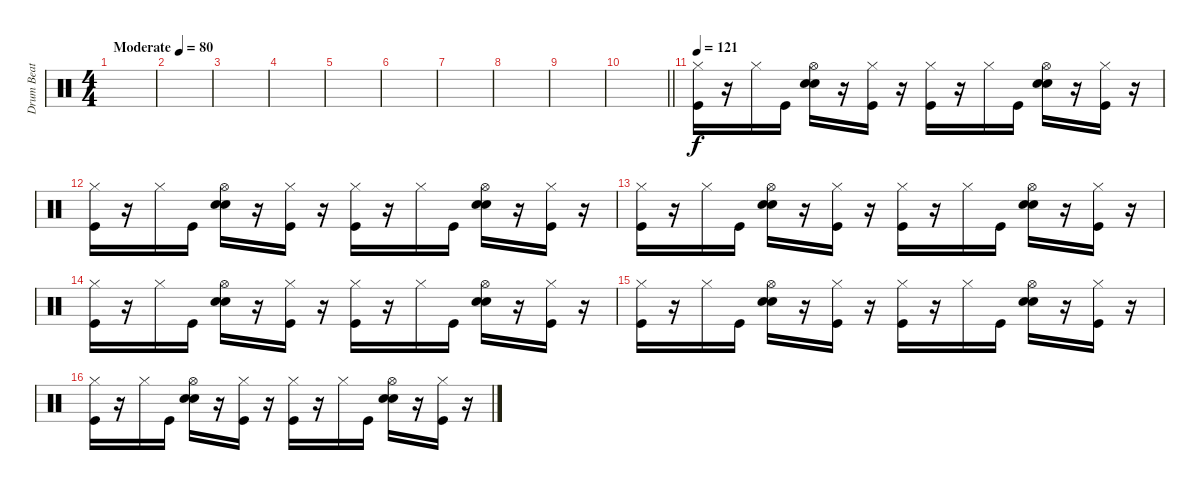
\track ("Drum Beat" "Drum Beat") {instrument percussion}
\staff {score}
\articulation defaults
\ts (4 4)
\tempo (80 "Moderate")
\clef neutral
\ks c
|
|
|
|
|
|
|
|
|
\barLineRight lightlight
|
\tempo 121
("Hi-Hat (closed)" "Kick (hit)").16 r.16 "Hi-Hat (closed)".16 "Kick (hit)".16 ("Hi-Hat (open)" "Snare (hit) 2" "Hand Clap (hit)").16 r.16 ("Hi-Hat (closed)" "Kick (hit)").16 r.16 ("Hi-Hat (closed)" "Kick (hit)").16 r.16 "Hi-Hat (closed)".16 "Kick (hit)".16 ("Hi-Hat (open)" "Snare (hit) 2" "Hand Clap (hit)").16 r.16 ("Hi-Hat (closed)" "Kick (hit)").16 r.16 |
("Hi-Hat (closed)" "Kick (hit)").16 r.16 "Hi-Hat (closed)".16 "Kick (hit)".16 ("Hi-Hat (open)" "Snare (hit) 2" "Hand Clap (hit)").16 r.16 ("Hi-Hat (closed)" "Kick (hit)").16 r.16 ("Hi-Hat (closed)" "Kick (hit)").16 r.16 "Hi-Hat (closed)".16 "Kick (hit)".16 ("Hi-Hat (open)" "Snare (hit) 2" "Hand Clap (hit)").16 r.16 ("Hi-Hat (closed)" "Kick (hit)").16 r.16 |
("Hi-Hat (closed)" "Kick (hit)").16 r.16 "Hi-Hat (closed)".16 "Kick (hit)".16 ("Hi-Hat (open)" "Snare (hit) 2" "Hand Clap (hit)").16 r.16 ("Hi-Hat (closed)" "Kick (hit)").16 r.16 ("Hi-Hat (closed)" "Kick (hit)").16 r.16 "Hi-Hat (closed)".16 "Kick (hit)".16 ("Hi-Hat (open)" "Snare (hit) 2" "Hand Clap (hit)").16 r.16 ("Hi-Hat (closed)" "Kick (hit)").16 r.16 |
("Hi-Hat (closed)" "Kick (hit)").16 r.16 "Hi-Hat (closed)".16 "Kick (hit)".16 ("Hi-Hat (open)" "Snare (hit) 2" "Hand Clap (hit)").16 r.16 ("Hi-Hat (closed)" "Kick (hit)").16 r.16 ("Hi-Hat (closed)" "Kick (hit)").16 r.16 "Hi-Hat (closed)".16 "Kick (hit)".16 ("Hi-Hat (open)" "Snare (hit) 2" "Hand Clap (hit)").16 r.16 ("Hi-Hat (closed)" "Kick (hit)").16 r.16 |
("Hi-Hat (closed)" "Kick (hit)").16 r.16 "Hi-Hat (closed)".16 "Kick (hit)".16 ("Hi-Hat (open)" "Snare (hit) 2" "Hand Clap (hit)").16 r.16 ("Hi-Hat (closed)" "Kick (hit)").16 r.16 ("Hi-Hat (closed)" "Kick (hit)").16 r.16 "Hi-Hat (closed)".16 "Kick (hit)".16 ("Hi-Hat (open)" "Snare (hit) 2" "Hand Clap (hit)").16 r.16 ("Hi-Hat (closed)" "Kick (hit)").16 r.16 |
("Hi-Hat (closed)" "Kick (hit)").16 r.16 "Hi-Hat (closed)".16 "Kick (hit)".16 ("Hi-Hat (open)" "Snare (hit) 2" "Hand Clap (hit)").16 r.16 ("Hi-Hat (closed)" "Kick (hit)").16 r.16 ("Hi-Hat (closed)" "Kick (hit)").16 r.16 "Hi-Hat (closed)".16 "Kick (hit)".16 ("Hi-Hat (open)" "Snare (hit) 2" "Hand Clap (hit)").16 r.16 ("Hi-Hat (closed)" "Kick (hit)").16 r.16
